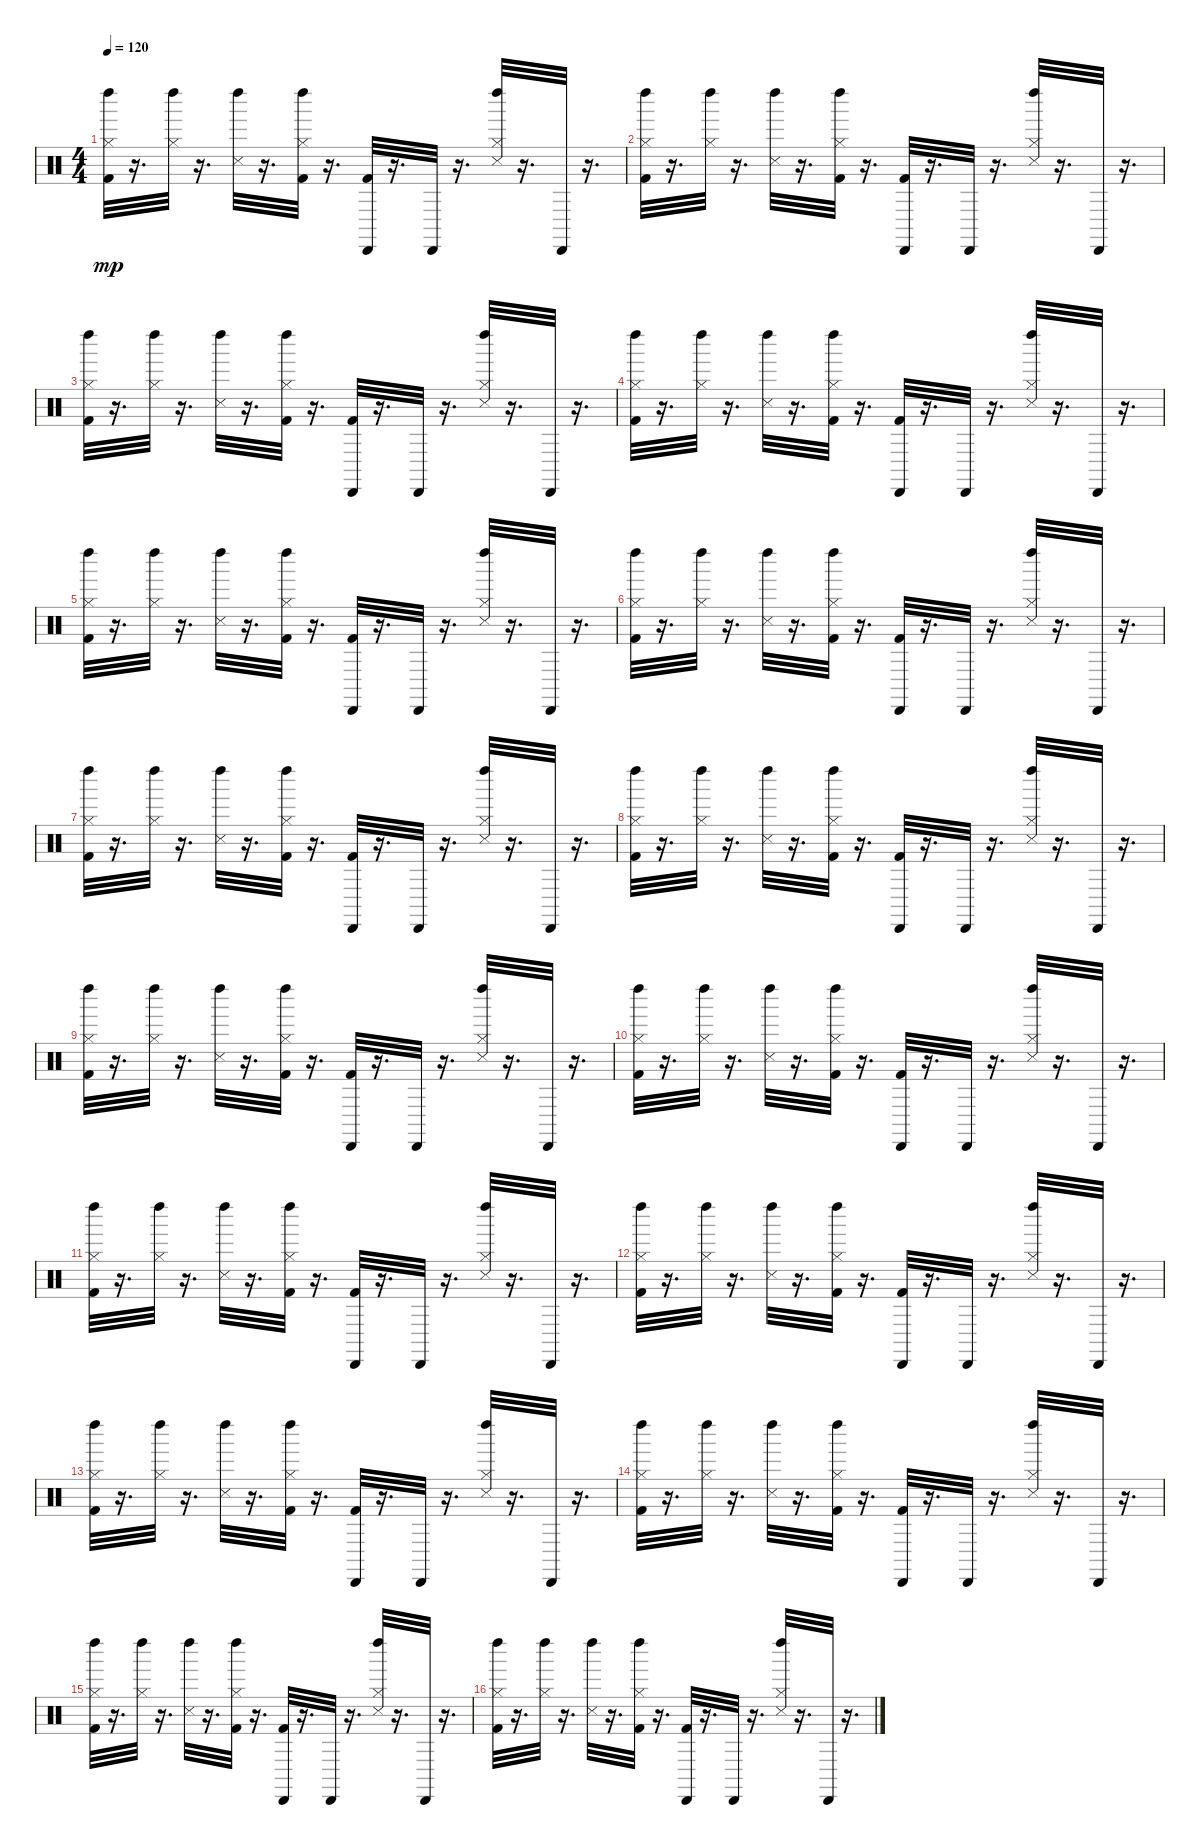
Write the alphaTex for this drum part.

\track "" {instrument percussion}
\staff {score}
\articulation defaults
\ts (4 4)
\tempo 120
\clef neutral
\ks c
("Left Maraca (hit)" "Hi-Hat (closed)" "Kick (hit) 2").32{dy mp} r.16{d} ("Left Maraca (hit)" "Hi-Hat (closed)").32 r.16{d} ("Snare (side stick) 3" "Left Maraca (hit)").32 r.16{d} ("Kick (hit) 2" "Left Maraca (hit)" "Hi-Hat (closed)").32 r.16{d} ("Kick (hit) 2" "Cabasa (hit)").32 r.16{d} "Cabasa (hit)".32 r.16{d} ("Snare (side stick) 3" "Hi-Hat (closed)" "Left Maraca (hit)").32 r.16{d} "Cabasa (hit)".32 r.16{d} |
("Left Maraca (hit)" "Hi-Hat (closed)" "Kick (hit) 2").32 r.16{d} ("Left Maraca (hit)" "Hi-Hat (closed)").32 r.16{d} ("Snare (side stick) 3" "Left Maraca (hit)").32 r.16{d} ("Kick (hit) 2" "Left Maraca (hit)" "Hi-Hat (closed)").32 r.16{d} ("Kick (hit) 2" "Cabasa (hit)").32 r.16{d} "Cabasa (hit)".32 r.16{d} ("Snare (side stick) 3" "Hi-Hat (closed)" "Left Maraca (hit)").32 r.16{d} "Cabasa (hit)".32 r.16{d} |
("Left Maraca (hit)" "Hi-Hat (closed)" "Kick (hit) 2").32 r.16{d} ("Left Maraca (hit)" "Hi-Hat (closed)").32 r.16{d} ("Snare (side stick) 3" "Left Maraca (hit)").32 r.16{d} ("Kick (hit) 2" "Left Maraca (hit)" "Hi-Hat (closed)").32 r.16{d} ("Kick (hit) 2" "Cabasa (hit)").32 r.16{d} "Cabasa (hit)".32 r.16{d} ("Snare (side stick) 3" "Hi-Hat (closed)" "Left Maraca (hit)").32 r.16{d} "Cabasa (hit)".32 r.16{d} |
("Left Maraca (hit)" "Hi-Hat (closed)" "Kick (hit) 2").32 r.16{d} ("Left Maraca (hit)" "Hi-Hat (closed)").32 r.16{d} ("Snare (side stick) 3" "Left Maraca (hit)").32 r.16{d} ("Kick (hit) 2" "Left Maraca (hit)" "Hi-Hat (closed)").32 r.16{d} ("Kick (hit) 2" "Cabasa (hit)").32 r.16{d} "Cabasa (hit)".32 r.16{d} ("Snare (side stick) 3" "Hi-Hat (closed)" "Left Maraca (hit)").32 r.16{d} "Cabasa (hit)".32 r.16{d} |
("Left Maraca (hit)" "Hi-Hat (closed)" "Kick (hit) 2").32 r.16{d} ("Left Maraca (hit)" "Hi-Hat (closed)").32 r.16{d} ("Snare (side stick) 3" "Left Maraca (hit)").32 r.16{d} ("Kick (hit) 2" "Left Maraca (hit)" "Hi-Hat (closed)").32 r.16{d} ("Kick (hit) 2" "Cabasa (hit)").32 r.16{d} "Cabasa (hit)".32 r.16{d} ("Snare (side stick) 3" "Hi-Hat (closed)" "Left Maraca (hit)").32 r.16{d} "Cabasa (hit)".32 r.16{d} |
("Left Maraca (hit)" "Hi-Hat (closed)" "Kick (hit) 2").32 r.16{d} ("Left Maraca (hit)" "Hi-Hat (closed)").32 r.16{d} ("Snare (side stick) 3" "Left Maraca (hit)").32 r.16{d} ("Kick (hit) 2" "Left Maraca (hit)" "Hi-Hat (closed)").32 r.16{d} ("Kick (hit) 2" "Cabasa (hit)").32 r.16{d} "Cabasa (hit)".32 r.16{d} ("Snare (side stick) 3" "Hi-Hat (closed)" "Left Maraca (hit)").32 r.16{d} "Cabasa (hit)".32 r.16{d} |
("Left Maraca (hit)" "Hi-Hat (closed)" "Kick (hit) 2").32 r.16{d} ("Left Maraca (hit)" "Hi-Hat (closed)").32 r.16{d} ("Snare (side stick) 3" "Left Maraca (hit)").32 r.16{d} ("Kick (hit) 2" "Left Maraca (hit)" "Hi-Hat (closed)").32 r.16{d} ("Kick (hit) 2" "Cabasa (hit)").32 r.16{d} "Cabasa (hit)".32 r.16{d} ("Snare (side stick) 3" "Hi-Hat (closed)" "Left Maraca (hit)").32 r.16{d} "Cabasa (hit)".32 r.16{d} |
("Left Maraca (hit)" "Hi-Hat (closed)" "Kick (hit) 2").32 r.16{d} ("Left Maraca (hit)" "Hi-Hat (closed)").32 r.16{d} ("Snare (side stick) 3" "Left Maraca (hit)").32 r.16{d} ("Kick (hit) 2" "Left Maraca (hit)" "Hi-Hat (closed)").32 r.16{d} ("Kick (hit) 2" "Cabasa (hit)").32 r.16{d} "Cabasa (hit)".32 r.16{d} ("Snare (side stick) 3" "Hi-Hat (closed)" "Left Maraca (hit)").32 r.16{d} "Cabasa (hit)".32 r.16{d} |
("Left Maraca (hit)" "Hi-Hat (closed)" "Kick (hit) 2").32 r.16{d} ("Left Maraca (hit)" "Hi-Hat (closed)").32 r.16{d} ("Snare (side stick) 3" "Left Maraca (hit)").32 r.16{d} ("Kick (hit) 2" "Left Maraca (hit)" "Hi-Hat (closed)").32 r.16{d} ("Kick (hit) 2" "Cabasa (hit)").32 r.16{d} "Cabasa (hit)".32 r.16{d} ("Snare (side stick) 3" "Hi-Hat (closed)" "Left Maraca (hit)").32 r.16{d} "Cabasa (hit)".32 r.16{d} |
("Left Maraca (hit)" "Hi-Hat (closed)" "Kick (hit) 2").32 r.16{d} ("Left Maraca (hit)" "Hi-Hat (closed)").32 r.16{d} ("Snare (side stick) 3" "Left Maraca (hit)").32 r.16{d} ("Kick (hit) 2" "Left Maraca (hit)" "Hi-Hat (closed)").32 r.16{d} ("Kick (hit) 2" "Cabasa (hit)").32 r.16{d} "Cabasa (hit)".32 r.16{d} ("Snare (side stick) 3" "Hi-Hat (closed)" "Left Maraca (hit)").32 r.16{d} "Cabasa (hit)".32 r.16{d} |
("Left Maraca (hit)" "Hi-Hat (closed)" "Kick (hit) 2").32 r.16{d} ("Left Maraca (hit)" "Hi-Hat (closed)").32 r.16{d} ("Snare (side stick) 3" "Left Maraca (hit)").32 r.16{d} ("Kick (hit) 2" "Left Maraca (hit)" "Hi-Hat (closed)").32 r.16{d} ("Kick (hit) 2" "Cabasa (hit)").32 r.16{d} "Cabasa (hit)".32 r.16{d} ("Snare (side stick) 3" "Hi-Hat (closed)" "Left Maraca (hit)").32 r.16{d} "Cabasa (hit)".32 r.16{d} |
("Left Maraca (hit)" "Hi-Hat (closed)" "Kick (hit) 2").32 r.16{d} ("Left Maraca (hit)" "Hi-Hat (closed)").32 r.16{d} ("Snare (side stick) 3" "Left Maraca (hit)").32 r.16{d} ("Kick (hit) 2" "Left Maraca (hit)" "Hi-Hat (closed)").32 r.16{d} ("Kick (hit) 2" "Cabasa (hit)").32 r.16{d} "Cabasa (hit)".32 r.16{d} ("Snare (side stick) 3" "Hi-Hat (closed)" "Left Maraca (hit)").32 r.16{d} "Cabasa (hit)".32 r.16{d} |
("Left Maraca (hit)" "Hi-Hat (closed)" "Kick (hit) 2").32 r.16{d} ("Left Maraca (hit)" "Hi-Hat (closed)").32 r.16{d} ("Snare (side stick) 3" "Left Maraca (hit)").32 r.16{d} ("Kick (hit) 2" "Left Maraca (hit)" "Hi-Hat (closed)").32 r.16{d} ("Kick (hit) 2" "Cabasa (hit)").32 r.16{d} "Cabasa (hit)".32 r.16{d} ("Snare (side stick) 3" "Hi-Hat (closed)" "Left Maraca (hit)").32 r.16{d} "Cabasa (hit)".32 r.16{d} |
("Left Maraca (hit)" "Hi-Hat (closed)" "Kick (hit) 2").32 r.16{d} ("Left Maraca (hit)" "Hi-Hat (closed)").32 r.16{d} ("Snare (side stick) 3" "Left Maraca (hit)").32 r.16{d} ("Kick (hit) 2" "Left Maraca (hit)" "Hi-Hat (closed)").32 r.16{d} ("Kick (hit) 2" "Cabasa (hit)").32 r.16{d} "Cabasa (hit)".32 r.16{d} ("Snare (side stick) 3" "Hi-Hat (closed)" "Left Maraca (hit)").32 r.16{d} "Cabasa (hit)".32 r.16{d} |
("Left Maraca (hit)" "Hi-Hat (closed)" "Kick (hit) 2").32 r.16{d} ("Left Maraca (hit)" "Hi-Hat (closed)").32 r.16{d} ("Snare (side stick) 3" "Left Maraca (hit)").32 r.16{d} ("Kick (hit) 2" "Left Maraca (hit)" "Hi-Hat (closed)").32 r.16{d} ("Kick (hit) 2" "Cabasa (hit)").32 r.16{d} "Cabasa (hit)".32 r.16{d} ("Snare (side stick) 3" "Hi-Hat (closed)" "Left Maraca (hit)").32 r.16{d} "Cabasa (hit)".32 r.16{d} |
("Left Maraca (hit)" "Hi-Hat (closed)" "Kick (hit) 2").32 r.16{d} ("Left Maraca (hit)" "Hi-Hat (closed)").32 r.16{d} ("Snare (side stick) 3" "Left Maraca (hit)").32 r.16{d} ("Kick (hit) 2" "Left Maraca (hit)" "Hi-Hat (closed)").32 r.16{d} ("Kick (hit) 2" "Cabasa (hit)").32 r.16{d} "Cabasa (hit)".32 r.16{d} ("Snare (side stick) 3" "Hi-Hat (closed)" "Left Maraca (hit)").32 r.16{d} "Cabasa (hit)".32 r.16{d}
